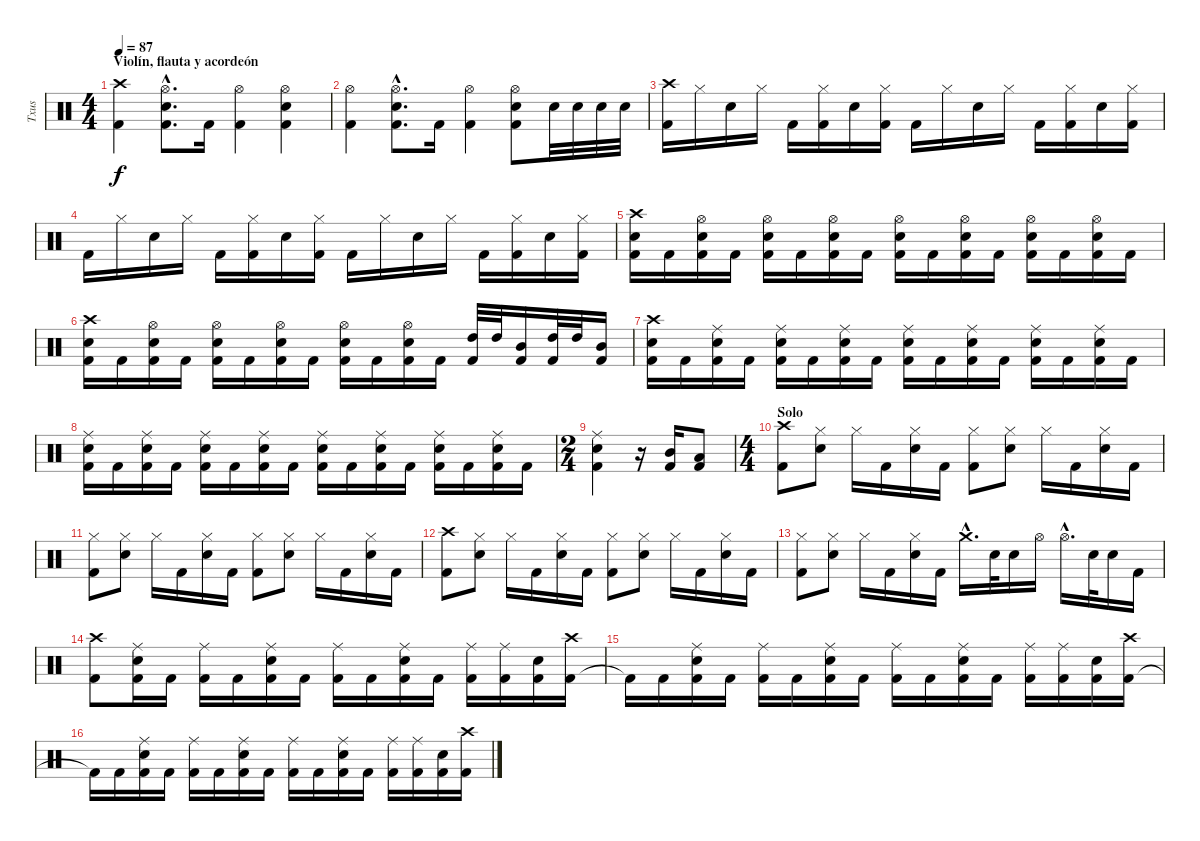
\track ("Txus" "Txus") {instrument percussion}
\staff {score}
\articulation defaults
\ts (4 4)
\section ("" "Violín, flauta y acordeón")
\tempo 87
\clef neutral
\ks c
("Kick (hit) 2" "Crash high (hit)").4{dy f} ("Kick (hit) 2"{hac} "Electric Snare (hit)"{hac} "Hi-Hat (open)"{hac}).8{d} "Kick (hit) 2".16 ("Kick (hit) 2" "Hi-Hat (open)").4 ("Kick (hit) 2" "Electric Snare (hit)" "Hi-Hat (open)").4 |
("Kick (hit) 2" "Hi-Hat (open)").4 ("Kick (hit) 2"{hac} "Electric Snare (hit)"{hac} "Hi-Hat (open)"{hac}).8{d} "Kick (hit) 2".16 ("Kick (hit) 2" "Hi-Hat (open)").4 ("Kick (hit) 2" "Electric Snare (hit)" "Hi-Hat (open)").8 "Electric Snare (hit)".32 "Electric Snare (hit)".32 "Electric Snare (hit)".32 "Electric Snare (hit)".32 |
("Kick (hit) 2" "Crash high (hit)").16 "Hi-Hat (closed)".16 "Electric Snare (hit)".16 "Hi-Hat (closed)".16 "Kick (hit) 2".16 ("Kick (hit) 2" "Hi-Hat (closed)").16 "Electric Snare (hit)".16 ("Kick (hit) 2" "Hi-Hat (closed)").16 "Kick (hit) 2".16 "Hi-Hat (closed)".16 "Electric Snare (hit)".16 "Hi-Hat (closed)".16 "Kick (hit) 2".16 ("Kick (hit) 2" "Hi-Hat (closed)").16 "Electric Snare (hit)".16 ("Kick (hit) 2" "Hi-Hat (closed)").16 |
"Kick (hit) 2".16 "Hi-Hat (closed)".16 "Electric Snare (hit)".16 "Hi-Hat (closed)".16 "Kick (hit) 2".16 ("Kick (hit) 2" "Hi-Hat (closed)").16 "Electric Snare (hit)".16 ("Kick (hit) 2" "Hi-Hat (closed)").16 "Kick (hit) 2".16 "Hi-Hat (closed)".16 "Electric Snare (hit)".16 "Hi-Hat (closed)".16 "Kick (hit) 2".16 ("Kick (hit) 2" "Hi-Hat (closed)").16 "Electric Snare (hit)".16 ("Kick (hit) 2" "Hi-Hat (closed)").16 |
("Kick (hit) 2" "Electric Snare (hit)" "Crash high (hit)").16 "Kick (hit) 2".16 ("Kick (hit) 2" "Electric Snare (hit)" "Hi-Hat (open)").16 "Kick (hit) 2".16 ("Kick (hit) 2" "Electric Snare (hit)" "Hi-Hat (open)").16 "Kick (hit) 2".16 ("Kick (hit) 2" "Electric Snare (hit)" "Hi-Hat (open)").16 "Kick (hit) 2".16 ("Kick (hit) 2" "Electric Snare (hit)" "Hi-Hat (open)").16 "Kick (hit) 2".16 ("Kick (hit) 2" "Electric Snare (hit)" "Hi-Hat (open)").16 "Kick (hit) 2".16 ("Kick (hit) 2" "Electric Snare (hit)" "Hi-Hat (open)").16 "Kick (hit) 2".16 ("Kick (hit) 2" "Electric Snare (hit)" "Hi-Hat (open)").16 "Kick (hit) 2".16 |
("Kick (hit) 2" "Electric Snare (hit)" "Crash high (hit)").16 "Kick (hit) 2".16 ("Kick (hit) 2" "Electric Snare (hit)" "Hi-Hat (open)").16 "Kick (hit) 2".16 ("Kick (hit) 2" "Electric Snare (hit)" "Hi-Hat (open)").16 "Kick (hit) 2".16 ("Kick (hit) 2" "Electric Snare (hit)" "Hi-Hat (open)").16 "Kick (hit) 2".16 ("Kick (hit) 2" "Electric Snare (hit)" "Hi-Hat (open)").16 "Kick (hit) 2".16 ("Kick (hit) 2" "Electric Snare (hit)" "Hi-Hat (open)").16 "Kick (hit) 2".16 ("Kick (hit) 2" "High Tom (hit)").32 "High Tom (hit)".32 ("Kick (hit) 2" "Mid Tom (hit)").16 ("Kick (hit) 2" "High Tom (hit)").32 "High Tom (hit)".32 ("Kick (hit) 2" "Mid Tom (hit)").16 |
("Kick (hit) 2" "Electric Snare (hit)" "Crash high (hit)").16 "Kick (hit) 2".16 ("Kick (hit) 2" "Electric Snare (hit)" "Ride (middle)").16 "Kick (hit) 2".16 ("Kick (hit) 2" "Electric Snare (hit)" "Ride (middle)").16 "Kick (hit) 2".16 ("Kick (hit) 2" "Electric Snare (hit)" "Ride (middle)").16 "Kick (hit) 2".16 ("Kick (hit) 2" "Electric Snare (hit)" "Ride (middle)").16 "Kick (hit) 2".16 ("Kick (hit) 2" "Electric Snare (hit)" "Ride (middle)").16 "Kick (hit) 2".16 ("Kick (hit) 2" "Electric Snare (hit)" "Ride (middle)").16 "Kick (hit) 2".16 ("Kick (hit) 2" "Electric Snare (hit)" "Ride (middle)").16 "Kick (hit) 2".16 |
("Kick (hit) 2" "Electric Snare (hit)" "Ride (middle)").16 "Kick (hit) 2".16 ("Kick (hit) 2" "Electric Snare (hit)" "Ride (middle)").16 "Kick (hit) 2".16 ("Kick (hit) 2" "Electric Snare (hit)" "Ride (middle)").16 "Kick (hit) 2".16 ("Kick (hit) 2" "Electric Snare (hit)" "Ride (middle)").16 "Kick (hit) 2".16 ("Kick (hit) 2" "Electric Snare (hit)" "Ride (middle)").16 "Kick (hit) 2".16 ("Kick (hit) 2" "Electric Snare (hit)" "Ride (middle)").16 "Kick (hit) 2".16 ("Kick (hit) 2" "Electric Snare (hit)" "Ride (middle)").16 "Kick (hit) 2".16 ("Kick (hit) 2" "Electric Snare (hit)" "Ride (middle)").16 "Kick (hit) 2".16 |
\ts (2 4)
("Kick (hit) 2" "Electric Snare (hit)" "Ride (middle)").4 r.16 ("Kick (hit) 2" "Mid Tom (hit)").16 ("Kick (hit) 2" "Low Tom (hit)").8 |
\ts (4 4)
\section ("" "Solo")
("Kick (hit) 2" "Crash high (hit)").8 ("Electric Snare (hit)" "Hi-Hat (closed)").8 "Hi-Hat (closed)".16 "Kick (hit) 2".16 ("Electric Snare (hit)" "Hi-Hat (closed)").16 "Kick (hit) 2".16 ("Kick (hit) 2" "Hi-Hat (closed)").8 ("Electric Snare (hit)" "Hi-Hat (closed)").8 "Hi-Hat (closed)".16 "Kick (hit) 2".16 ("Electric Snare (hit)" "Hi-Hat (closed)").16 "Kick (hit) 2".16 |
("Kick (hit) 2" "Hi-Hat (closed)").8 ("Electric Snare (hit)" "Hi-Hat (closed)").8 "Hi-Hat (closed)".16 "Kick (hit) 2".16 ("Electric Snare (hit)" "Hi-Hat (closed)").16 "Kick (hit) 2".16 ("Kick (hit) 2" "Hi-Hat (closed)").8 ("Electric Snare (hit)" "Hi-Hat (closed)").8 "Hi-Hat (closed)".16 "Kick (hit) 2".16 ("Electric Snare (hit)" "Hi-Hat (closed)").16 "Kick (hit) 2".16 |
("Kick (hit) 2" "Crash high (hit)").8 ("Electric Snare (hit)" "Hi-Hat (closed)").8 "Hi-Hat (closed)".16 "Kick (hit) 2".16 ("Electric Snare (hit)" "Hi-Hat (closed)").16 "Kick (hit) 2".16 ("Kick (hit) 2" "Hi-Hat (closed)").8 ("Electric Snare (hit)" "Hi-Hat (closed)").8 "Hi-Hat (closed)".16 "Kick (hit) 2".16 ("Electric Snare (hit)" "Hi-Hat (closed)").16 "Kick (hit) 2".16 |
("Kick (hit) 2" "Hi-Hat (closed)").8 ("Electric Snare (hit)" "Hi-Hat (closed)").8 "Hi-Hat (closed)".16 "Kick (hit) 2".16 ("Electric Snare (hit)" "Hi-Hat (closed)").16 "Kick (hit) 2".16 "Crash medium (hit)"{hac}.16{d} "Electric Snare (hit)".32 "Electric Snare (hit)".16 "Hi-Hat (open)".16 "Hi-Hat (open)"{hac}.16{d} "Electric Snare (hit)".32 "Electric Snare (hit)".16 "Kick (hit) 2".16 |
("Kick (hit) 2" "Crash high (hit)").8 ("Kick (hit) 2" "Electric Snare (hit)" "Ride (middle)").16 "Kick (hit) 2".16 ("Kick (hit) 2" "Ride (middle)").16 "Kick (hit) 2".16 ("Kick (hit) 2" "Electric Snare (hit)" "Ride (middle)").16 "Kick (hit) 2".16 ("Kick (hit) 2" "Ride (middle)").16 "Kick (hit) 2".16 ("Kick (hit) 2" "Electric Snare (hit)" "Ride (middle)").16 "Kick (hit) 2".16 ("Kick (hit) 2" "Ride (middle)").16 ("Kick (hit) 2" "Ride (middle)").16 ("Kick (hit) 2" "Electric Snare (hit)").16 ("Kick (hit) 2" "Crash high (hit)").16 |
"Kick (hit) 2"{t}.16 "Kick (hit) 2".16 ("Kick (hit) 2" "Electric Snare (hit)" "Ride (middle)").16 "Kick (hit) 2".16 ("Kick (hit) 2" "Ride (middle)").16 "Kick (hit) 2".16 ("Kick (hit) 2" "Electric Snare (hit)" "Ride (middle)").16 "Kick (hit) 2".16 ("Kick (hit) 2" "Ride (middle)").16 "Kick (hit) 2".16 ("Kick (hit) 2" "Electric Snare (hit)" "Ride (middle)").16 "Kick (hit) 2".16 ("Kick (hit) 2" "Ride (middle)").16 ("Kick (hit) 2" "Ride (middle)").16 ("Kick (hit) 2" "Electric Snare (hit)").16 ("Kick (hit) 2" "Crash high (hit)").16 |
"Kick (hit) 2"{t}.16 "Kick (hit) 2".16 ("Kick (hit) 2" "Electric Snare (hit)" "Ride (middle)").16 "Kick (hit) 2".16 ("Kick (hit) 2" "Ride (middle)").16 "Kick (hit) 2".16 ("Kick (hit) 2" "Electric Snare (hit)" "Ride (middle)").16 "Kick (hit) 2".16 ("Kick (hit) 2" "Ride (middle)").16 "Kick (hit) 2".16 ("Kick (hit) 2" "Electric Snare (hit)" "Ride (middle)").16 "Kick (hit) 2".16 ("Kick (hit) 2" "Ride (middle)").16 ("Kick (hit) 2" "Ride (middle)").16 ("Kick (hit) 2" "Electric Snare (hit)").16 ("Kick (hit) 2" "Crash high (hit)").16
